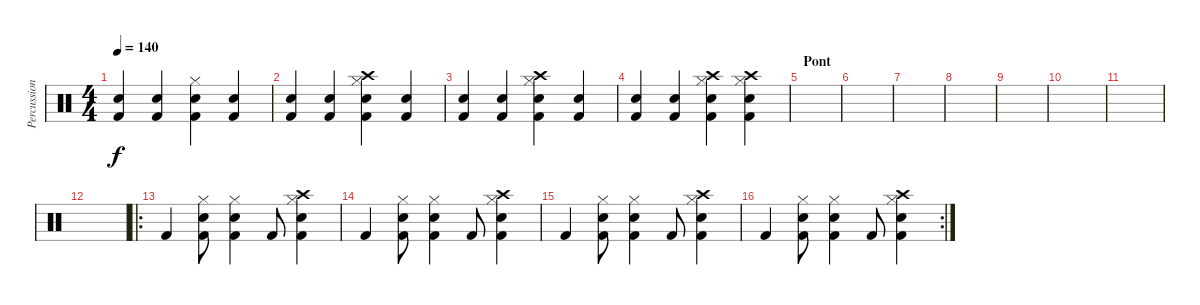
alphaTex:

\track ("Percussions" "Percussion") {instrument percussion}
\staff {score}
\articulation defaults
\ts (4 4)
\tempo 140
\clef neutral
\ks c
("Snare (hit) 2" "Kick (hit) 2").4{dy f} ("Snare (hit) 2" "Kick (hit) 2").4 ("Snare (hit) 2" "Kick (hit) 2" "Hi-Hat (closed)").4 ("Snare (hit) 2" "Kick (hit) 2").4 |
("Snare (hit) 2" "Kick (hit) 2").4 ("Snare (hit) 2" "Kick (hit) 2").4 ("Snare (hit) 2" "Kick (hit) 2" "Hi-Hat (closed)" "Crash high (hit)").4 ("Snare (hit) 2" "Kick (hit) 2").4 |
("Snare (hit) 2" "Kick (hit) 2").4 ("Snare (hit) 2" "Kick (hit) 2").4 ("Snare (hit) 2" "Kick (hit) 2" "Hi-Hat (closed)" "Crash high (hit)").4 ("Snare (hit) 2" "Kick (hit) 2").4 |
("Snare (hit) 2" "Kick (hit) 2").4 ("Snare (hit) 2" "Kick (hit) 2").4 ("Snare (hit) 2" "Kick (hit) 2" "Hi-Hat (closed)" "Crash high (hit)").4 ("Snare (hit) 2" "Kick (hit) 2" "Hi-Hat (closed)" "Crash high (hit)").4 |
\section ("" "Pont")
|
|
|
|
|
|
|
|
\ro "Kick (hit) 2".4
("Snare (hit) 2" "Kick (hit) 2" "Hi-Hat (closed)").8 ("Snare (hit) 2" "Kick (hit) 2" "Hi-Hat (closed)").4 "Kick (hit) 2".8 ("Snare (hit) 2" "Kick (hit) 2" "Hi-Hat (closed)" "Crash high (hit)").4 |
"Kick (hit) 2".4 ("Snare (hit) 2" "Kick (hit) 2" "Hi-Hat (closed)").8 ("Snare (hit) 2" "Kick (hit) 2" "Hi-Hat (closed)").4 "Kick (hit) 2".8 ("Snare (hit) 2" "Kick (hit) 2" "Hi-Hat (closed)" "Crash high (hit)").4 |
"Kick (hit) 2".4 ("Snare (hit) 2" "Kick (hit) 2" "Hi-Hat (closed)").8 ("Snare (hit) 2" "Kick (hit) 2" "Hi-Hat (closed)").4 "Kick (hit) 2".8 ("Snare (hit) 2" "Kick (hit) 2" "Hi-Hat (closed)" "Crash high (hit)").4 |
\rc 2 "Kick (hit) 2".4
("Snare (hit) 2" "Kick (hit) 2" "Hi-Hat (closed)").8 ("Snare (hit) 2" "Kick (hit) 2" "Hi-Hat (closed)").4 "Kick (hit) 2".8 ("Snare (hit) 2" "Kick (hit) 2" "Hi-Hat (closed)" "Crash high (hit)").4
